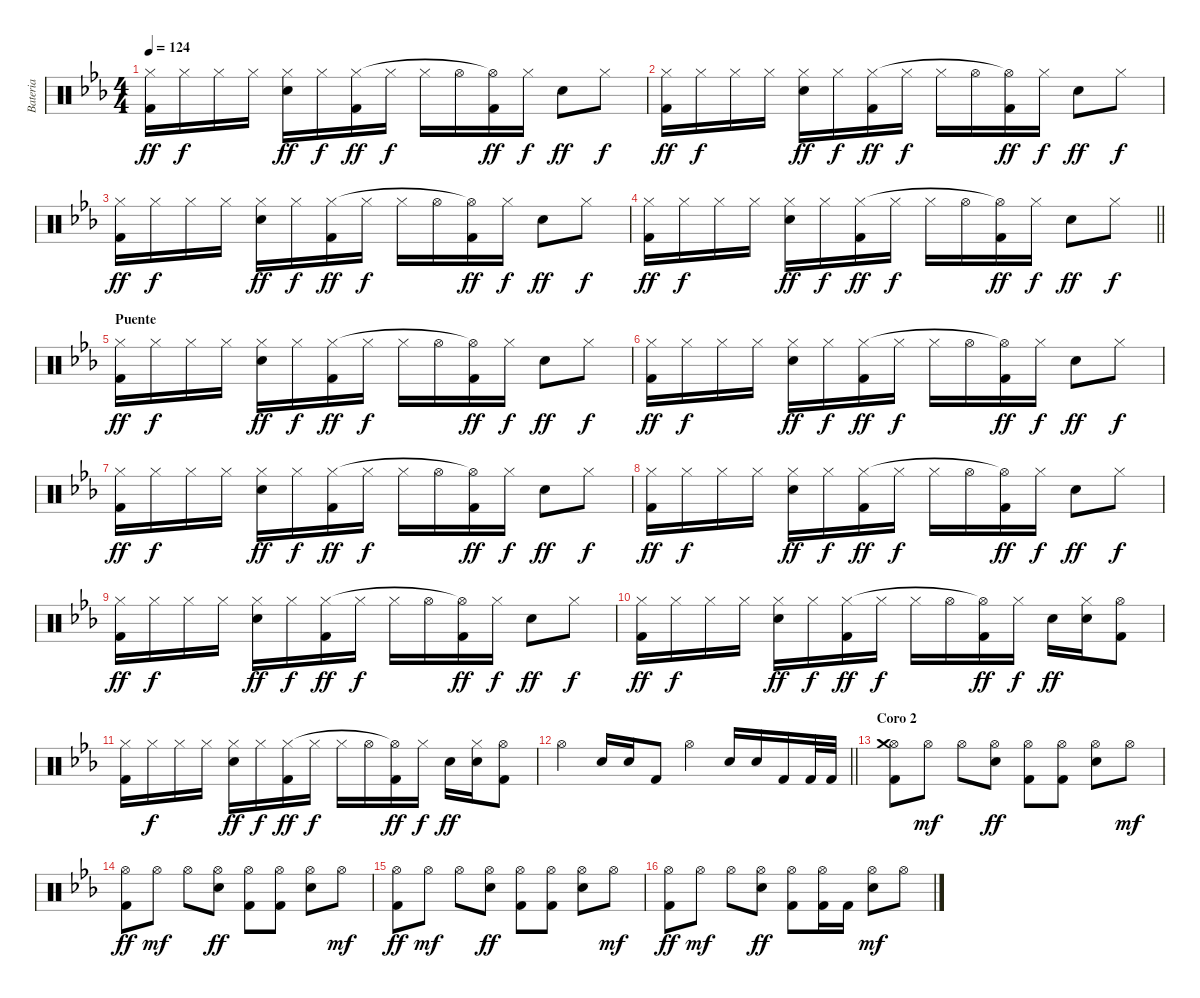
\track ("Bateria" "Bateria") {instrument percussion}
\staff {score}
\articulation defaults
\ts (4 4)
\tempo 124
\clef neutral
\ks eb
("Kick (hit) 2" "Hi-Hat (closed)").16{dy ff} "Hi-Hat (closed)".16{dy f} "Hi-Hat (closed)".16 "Hi-Hat (closed)".16 ("Electric Snare (hit)" "Hi-Hat (closed)").16{dy ff} "Hi-Hat (closed)".16{dy f} ("Kick (hit) 2" "Hi-Hat (closed)").16{dy ff} "Hi-Hat (closed)".16{dy f} "Hi-Hat (closed)".16 "Hi-Hat (open)".16 ("Kick (hit) 2" "Hi-Hat (open)"{t}).16{dy ff} "Hi-Hat (closed)".16{dy f} "Electric Snare (hit)".8{dy ff} "Hi-Hat (closed)".8{dy f} |
("Kick (hit) 2" "Hi-Hat (closed)").16{dy ff} "Hi-Hat (closed)".16{dy f} "Hi-Hat (closed)".16 "Hi-Hat (closed)".16 ("Electric Snare (hit)" "Hi-Hat (closed)").16{dy ff} "Hi-Hat (closed)".16{dy f} ("Kick (hit) 2" "Hi-Hat (closed)").16{dy ff} "Hi-Hat (closed)".16{dy f} "Hi-Hat (closed)".16 "Hi-Hat (open)".16 ("Kick (hit) 2" "Hi-Hat (open)"{t}).16{dy ff} "Hi-Hat (closed)".16{dy f} "Electric Snare (hit)".8{dy ff} "Hi-Hat (closed)".8{dy f} |
("Kick (hit) 2" "Hi-Hat (closed)").16{dy ff} "Hi-Hat (closed)".16{dy f} "Hi-Hat (closed)".16 "Hi-Hat (closed)".16 ("Electric Snare (hit)" "Hi-Hat (closed)").16{dy ff} "Hi-Hat (closed)".16{dy f} ("Kick (hit) 2" "Hi-Hat (closed)").16{dy ff} "Hi-Hat (closed)".16{dy f} "Hi-Hat (closed)".16 "Hi-Hat (open)".16 ("Kick (hit) 2" "Hi-Hat (open)"{t}).16{dy ff} "Hi-Hat (closed)".16{dy f} "Electric Snare (hit)".8{dy ff} "Hi-Hat (closed)".8{dy f} |
\barLineRight lightlight
("Kick (hit) 2" "Hi-Hat (closed)").16{dy ff} "Hi-Hat (closed)".16{dy f} "Hi-Hat (closed)".16 "Hi-Hat (closed)".16 ("Electric Snare (hit)" "Hi-Hat (closed)").16{dy ff} "Hi-Hat (closed)".16{dy f} ("Kick (hit) 2" "Hi-Hat (closed)").16{dy ff} "Hi-Hat (closed)".16{dy f} "Hi-Hat (closed)".16 "Hi-Hat (open)".16 ("Kick (hit) 2" "Hi-Hat (open)"{t}).16{dy ff} "Hi-Hat (closed)".16{dy f} "Electric Snare (hit)".8{dy ff} "Hi-Hat (closed)".8{dy f} |
\section ("" "Puente")
("Kick (hit) 2" "Hi-Hat (closed)").16{dy ff} "Hi-Hat (closed)".16{dy f} "Hi-Hat (closed)".16 "Hi-Hat (closed)".16 ("Electric Snare (hit)" "Hi-Hat (closed)").16{dy ff} "Hi-Hat (closed)".16{dy f} ("Kick (hit) 2" "Hi-Hat (closed)").16{dy ff} "Hi-Hat (closed)".16{dy f} "Hi-Hat (closed)".16 "Hi-Hat (open)".16 ("Kick (hit) 2" "Hi-Hat (open)"{t}).16{dy ff} "Hi-Hat (closed)".16{dy f} "Electric Snare (hit)".8{dy ff} "Hi-Hat (closed)".8{dy f} |
("Kick (hit) 2" "Hi-Hat (closed)").16{dy ff} "Hi-Hat (closed)".16{dy f} "Hi-Hat (closed)".16 "Hi-Hat (closed)".16 ("Electric Snare (hit)" "Hi-Hat (closed)").16{dy ff} "Hi-Hat (closed)".16{dy f} ("Kick (hit) 2" "Hi-Hat (closed)").16{dy ff} "Hi-Hat (closed)".16{dy f} "Hi-Hat (closed)".16 "Hi-Hat (open)".16 ("Kick (hit) 2" "Hi-Hat (open)"{t}).16{dy ff} "Hi-Hat (closed)".16{dy f} "Electric Snare (hit)".8{dy ff} "Hi-Hat (closed)".8{dy f} |
("Kick (hit) 2" "Hi-Hat (closed)").16{dy ff} "Hi-Hat (closed)".16{dy f} "Hi-Hat (closed)".16 "Hi-Hat (closed)".16 ("Electric Snare (hit)" "Hi-Hat (closed)").16{dy ff} "Hi-Hat (closed)".16{dy f} ("Kick (hit) 2" "Hi-Hat (closed)").16{dy ff} "Hi-Hat (closed)".16{dy f} "Hi-Hat (closed)".16 "Hi-Hat (open)".16 ("Kick (hit) 2" "Hi-Hat (open)"{t}).16{dy ff} "Hi-Hat (closed)".16{dy f} "Electric Snare (hit)".8{dy ff} "Hi-Hat (closed)".8{dy f} |
("Kick (hit) 2" "Hi-Hat (closed)").16{dy ff} "Hi-Hat (closed)".16{dy f} "Hi-Hat (closed)".16 "Hi-Hat (closed)".16 ("Electric Snare (hit)" "Hi-Hat (closed)").16{dy ff} "Hi-Hat (closed)".16{dy f} ("Kick (hit) 2" "Hi-Hat (closed)").16{dy ff} "Hi-Hat (closed)".16{dy f} "Hi-Hat (closed)".16 "Hi-Hat (open)".16 ("Kick (hit) 2" "Hi-Hat (open)"{t}).16{dy ff} "Hi-Hat (closed)".16{dy f} "Electric Snare (hit)".8{dy ff} "Hi-Hat (closed)".8{dy f} |
("Kick (hit) 2" "Hi-Hat (closed)").16{dy ff} "Hi-Hat (closed)".16{dy f} "Hi-Hat (closed)".16 "Hi-Hat (closed)".16 ("Electric Snare (hit)" "Hi-Hat (closed)").16{dy ff} "Hi-Hat (closed)".16{dy f} ("Kick (hit) 2" "Hi-Hat (closed)").16{dy ff} "Hi-Hat (closed)".16{dy f} "Hi-Hat (closed)".16 "Hi-Hat (open)".16 ("Kick (hit) 2" "Hi-Hat (open)"{t}).16{dy ff} "Hi-Hat (closed)".16{dy f} "Electric Snare (hit)".8{dy ff} "Hi-Hat (closed)".8{dy f} |
("Kick (hit) 2" "Hi-Hat (closed)").16{dy ff} "Hi-Hat (closed)".16{dy f} "Hi-Hat (closed)".16 "Hi-Hat (closed)".16 ("Electric Snare (hit)" "Hi-Hat (closed)").16{dy ff} "Hi-Hat (closed)".16{dy f} ("Kick (hit) 2" "Hi-Hat (closed)").16{dy ff} "Hi-Hat (closed)".16{dy f} "Hi-Hat (closed)".16 "Hi-Hat (open)".16 ("Kick (hit) 2" "Hi-Hat (open)"{t}).16{dy ff} "Hi-Hat (closed)".16{dy f} "Electric Snare (hit)".16{dy ff} ("Electric Snare (hit)" "Hi-Hat (closed)").16 ("Kick (hit) 2" "Hi-Hat (open)").8 |
("Kick (hit) 2" "Hi-Hat (closed)").16 "Hi-Hat (closed)".16{dy f} "Hi-Hat (closed)".16 "Hi-Hat (closed)".16 ("Electric Snare (hit)" "Hi-Hat (closed)").16{dy ff} "Hi-Hat (closed)".16{dy f} ("Kick (hit) 2" "Hi-Hat (closed)").16{dy ff} "Hi-Hat (closed)".16{dy f} "Hi-Hat (closed)".16 "Hi-Hat (open)".16 ("Kick (hit) 2" "Hi-Hat (open)"{t}).16{dy ff} "Hi-Hat (closed)".16{dy f} "Electric Snare (hit)".16{dy ff} ("Electric Snare (hit)" "Hi-Hat (closed)").16 ("Kick (hit) 2" "Hi-Hat (open)").8 |
\barLineRight lightlight "Hi-Hat (open)".4 "Electric Snare (hit)".16 "Electric Snare (hit)".16 "Kick (hit) 2".8 "Hi-Hat (open)".4 "Electric Snare (hit)".16 "Electric Snare (hit)".16 "Kick (hit) 2".16 "Kick (hit) 2".32 "Kick (hit) 2".32
|
\section ("" "Coro 2")
("Hi-Hat (open)" "Kick (hit) 2" "Crash medium (hit)").8 "Hi-Hat (open)".8{dy mf} "Hi-Hat (open)".8 ("Hi-Hat (open)" "Electric Snare (hit)").8{dy ff} ("Hi-Hat (open)" "Kick (hit) 2").8 ("Hi-Hat (open)" "Kick (hit) 2").8 ("Hi-Hat (open)" "Electric Snare (hit)").8 "Hi-Hat (open)".8{dy mf} |
("Hi-Hat (open)" "Kick (hit) 2").8{dy ff} "Hi-Hat (open)".8{dy mf} "Hi-Hat (open)".8 ("Hi-Hat (open)" "Electric Snare (hit)").8{dy ff} ("Hi-Hat (open)" "Kick (hit) 2").8 ("Hi-Hat (open)" "Kick (hit) 2").8 ("Hi-Hat (open)" "Electric Snare (hit)").8 "Hi-Hat (open)".8{dy mf} |
("Hi-Hat (open)" "Kick (hit) 2").8{dy ff} "Hi-Hat (open)".8{dy mf} "Hi-Hat (open)".8 ("Hi-Hat (open)" "Electric Snare (hit)").8{dy ff} ("Hi-Hat (open)" "Kick (hit) 2").8 ("Hi-Hat (open)" "Kick (hit) 2").8 ("Hi-Hat (open)" "Electric Snare (hit)").8 "Hi-Hat (open)".8{dy mf} |
("Hi-Hat (open)" "Kick (hit) 2").8{dy ff} "Hi-Hat (open)".8{dy mf} "Hi-Hat (open)".8 ("Hi-Hat (open)" "Electric Snare (hit)").8{dy ff} ("Hi-Hat (open)" "Kick (hit) 2").8 ("Hi-Hat (open)" "Kick (hit) 2").16 "Kick (hit) 2".16 ("Electric Snare (hit)" "Hi-Hat (open)").8{dy mf} "Hi-Hat (open)".8
